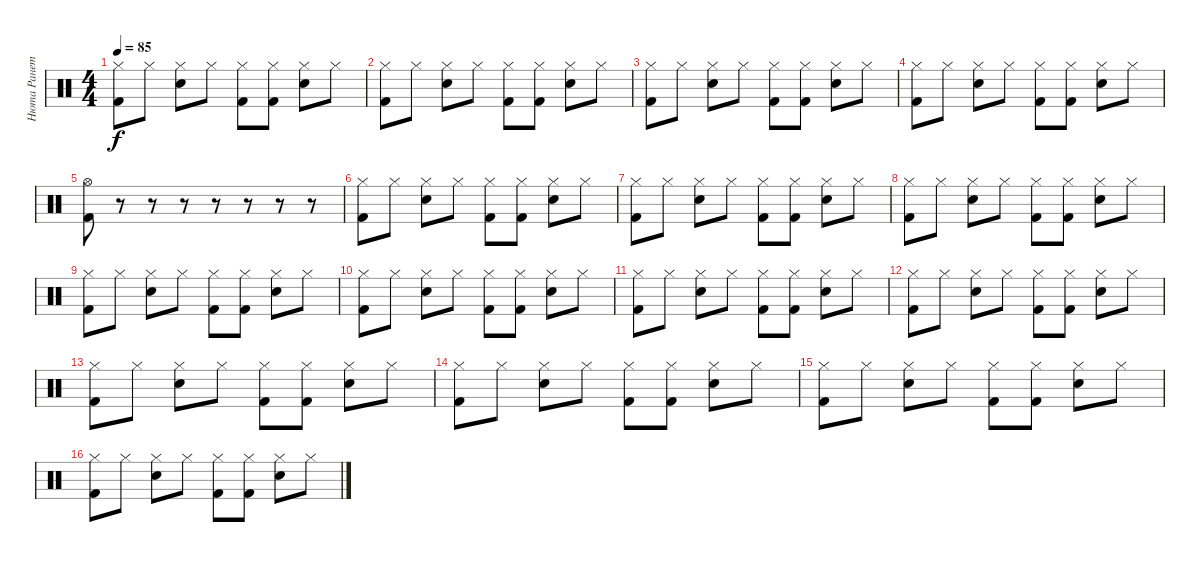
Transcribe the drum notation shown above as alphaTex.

\track ("Нюта Ранетка" "Нюта Ранет") {instrument percussion}
\staff {score}
\articulation defaults
\ts (4 4)
\tempo 85
\clef neutral
\ks c
("Hi-Hat (closed)" "Kick (hit) 2").8{dy f} "Hi-Hat (closed)".8 ("Hi-Hat (closed)" "Electric Snare (hit)").8 "Hi-Hat (closed)".8 ("Hi-Hat (closed)" "Kick (hit) 2").8 ("Hi-Hat (closed)" "Kick (hit) 2").8 ("Hi-Hat (closed)" "Electric Snare (hit)").8 "Hi-Hat (closed)".8 |
("Hi-Hat (closed)" "Kick (hit) 2").8 "Hi-Hat (closed)".8 ("Hi-Hat (closed)" "Electric Snare (hit)").8 "Hi-Hat (closed)".8 ("Hi-Hat (closed)" "Kick (hit) 2").8 ("Hi-Hat (closed)" "Kick (hit) 2").8 ("Hi-Hat (closed)" "Electric Snare (hit)").8 "Hi-Hat (closed)".8 |
("Hi-Hat (closed)" "Kick (hit) 2").8 "Hi-Hat (closed)".8 ("Hi-Hat (closed)" "Electric Snare (hit)").8 "Hi-Hat (closed)".8 ("Hi-Hat (closed)" "Kick (hit) 2").8 ("Hi-Hat (closed)" "Kick (hit) 2").8 ("Hi-Hat (closed)" "Electric Snare (hit)").8 "Hi-Hat (closed)".8 |
("Hi-Hat (closed)" "Kick (hit) 2").8 "Hi-Hat (closed)".8 ("Hi-Hat (closed)" "Electric Snare (hit)").8 "Hi-Hat (closed)".8 ("Hi-Hat (closed)" "Kick (hit) 2").8 ("Hi-Hat (closed)" "Kick (hit) 2").8 ("Hi-Hat (closed)" "Electric Snare (hit)").8 "Hi-Hat (closed)".8 |
("Hi-Hat (open)" "Kick (hit) 2").8 r.8 r.8 r.8 r.8 r.8 r.8 r.8 |
("Hi-Hat (closed)" "Kick (hit) 2").8 "Hi-Hat (closed)".8 ("Hi-Hat (closed)" "Electric Snare (hit)").8 "Hi-Hat (closed)".8 ("Hi-Hat (closed)" "Kick (hit) 2").8 ("Hi-Hat (closed)" "Kick (hit) 2").8 ("Hi-Hat (closed)" "Electric Snare (hit)").8 "Hi-Hat (closed)".8 |
("Hi-Hat (closed)" "Kick (hit) 2").8 "Hi-Hat (closed)".8 ("Hi-Hat (closed)" "Electric Snare (hit)").8 "Hi-Hat (closed)".8 ("Hi-Hat (closed)" "Kick (hit) 2").8 ("Hi-Hat (closed)" "Kick (hit) 2").8 ("Hi-Hat (closed)" "Electric Snare (hit)").8 "Hi-Hat (closed)".8 |
("Hi-Hat (closed)" "Kick (hit) 2").8 "Hi-Hat (closed)".8 ("Hi-Hat (closed)" "Electric Snare (hit)").8 "Hi-Hat (closed)".8 ("Hi-Hat (closed)" "Kick (hit) 2").8 ("Hi-Hat (closed)" "Kick (hit) 2").8 ("Hi-Hat (closed)" "Electric Snare (hit)").8 "Hi-Hat (closed)".8 |
("Hi-Hat (closed)" "Kick (hit) 2").8 "Hi-Hat (closed)".8 ("Hi-Hat (closed)" "Electric Snare (hit)").8 "Hi-Hat (closed)".8 ("Hi-Hat (closed)" "Kick (hit) 2").8 ("Hi-Hat (closed)" "Kick (hit) 2").8 ("Hi-Hat (closed)" "Electric Snare (hit)").8 "Hi-Hat (closed)".8 |
("Hi-Hat (closed)" "Kick (hit) 2").8 "Hi-Hat (closed)".8 ("Hi-Hat (closed)" "Electric Snare (hit)").8 "Hi-Hat (closed)".8 ("Hi-Hat (closed)" "Kick (hit) 2").8 ("Hi-Hat (closed)" "Kick (hit) 2").8 ("Hi-Hat (closed)" "Electric Snare (hit)").8 "Hi-Hat (closed)".8 |
("Hi-Hat (closed)" "Kick (hit) 2").8 "Hi-Hat (closed)".8 ("Hi-Hat (closed)" "Electric Snare (hit)").8 "Hi-Hat (closed)".8 ("Hi-Hat (closed)" "Kick (hit) 2").8 ("Hi-Hat (closed)" "Kick (hit) 2").8 ("Hi-Hat (closed)" "Electric Snare (hit)").8 "Hi-Hat (closed)".8 |
("Hi-Hat (closed)" "Kick (hit) 2").8 "Hi-Hat (closed)".8 ("Hi-Hat (closed)" "Electric Snare (hit)").8 "Hi-Hat (closed)".8 ("Hi-Hat (closed)" "Kick (hit) 2").8 ("Hi-Hat (closed)" "Kick (hit) 2").8 ("Hi-Hat (closed)" "Electric Snare (hit)").8 "Hi-Hat (closed)".8 |
("Hi-Hat (closed)" "Kick (hit) 2").8 "Hi-Hat (closed)".8 ("Hi-Hat (closed)" "Electric Snare (hit)").8 "Hi-Hat (closed)".8 ("Hi-Hat (closed)" "Kick (hit) 2").8 ("Hi-Hat (closed)" "Kick (hit) 2").8 ("Hi-Hat (closed)" "Electric Snare (hit)").8 "Hi-Hat (closed)".8 |
("Hi-Hat (closed)" "Kick (hit) 2").8 "Hi-Hat (closed)".8 ("Hi-Hat (closed)" "Electric Snare (hit)").8 "Hi-Hat (closed)".8 ("Hi-Hat (closed)" "Kick (hit) 2").8 ("Hi-Hat (closed)" "Kick (hit) 2").8 ("Hi-Hat (closed)" "Electric Snare (hit)").8 "Hi-Hat (closed)".8 |
("Hi-Hat (closed)" "Kick (hit) 2").8 "Hi-Hat (closed)".8 ("Hi-Hat (closed)" "Electric Snare (hit)").8 "Hi-Hat (closed)".8 ("Hi-Hat (closed)" "Kick (hit) 2").8 ("Hi-Hat (closed)" "Kick (hit) 2").8 ("Hi-Hat (closed)" "Electric Snare (hit)").8 "Hi-Hat (closed)".8 |
("Hi-Hat (closed)" "Kick (hit) 2").8 "Hi-Hat (closed)".8 ("Hi-Hat (closed)" "Electric Snare (hit)").8 "Hi-Hat (closed)".8 ("Hi-Hat (closed)" "Kick (hit) 2").8 ("Hi-Hat (closed)" "Kick (hit) 2").8 ("Hi-Hat (closed)" "Electric Snare (hit)").8 "Hi-Hat (closed)".8
